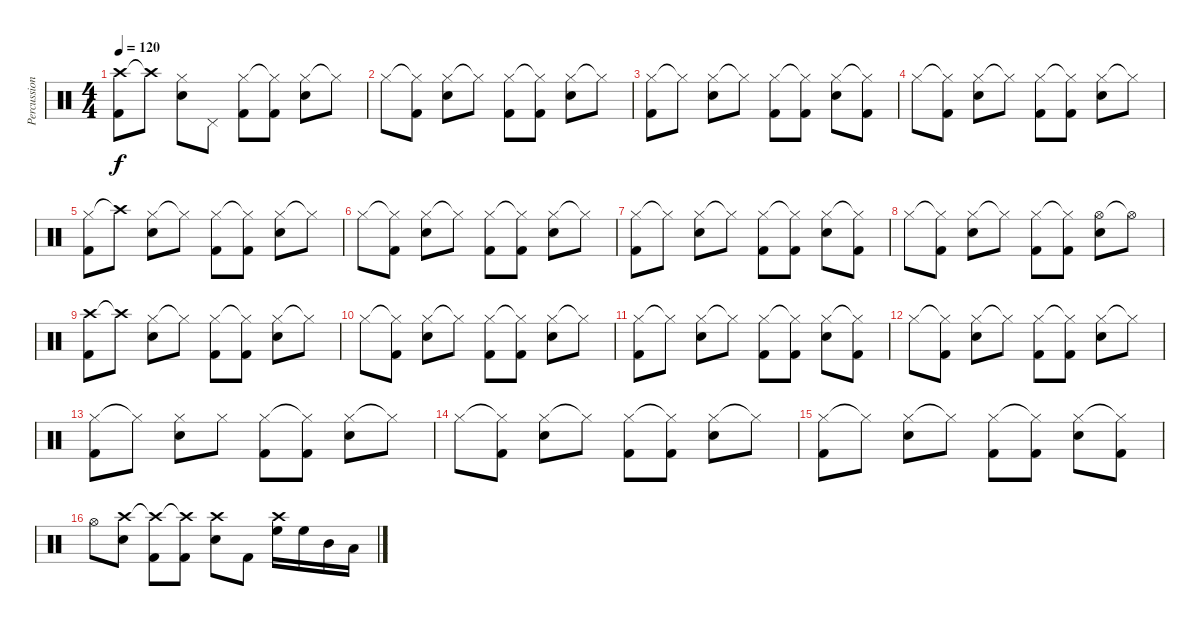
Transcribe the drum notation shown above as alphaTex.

\track ("Percussion" "Percussion") {instrument percussion}
\staff {score}
\articulation defaults
\ts (4 4)
\tempo 120
\clef neutral
\ks c
("Crash high (hit)" "Kick (hit) 2").8{dy f} "Crash high (hit)"{t}.8 ("Hi-Hat (closed)" "Electric Snare (hit)").8 "Pedal Hi-Hat (hit)".8 ("Hi-Hat (closed)" "Kick (hit) 2").8 ("Hi-Hat (closed)"{t} "Kick (hit) 2").8 ("Hi-Hat (closed)" "Electric Snare (hit)").8 "Hi-Hat (closed)"{t}.8 |
"Hi-Hat (closed)".8 ("Hi-Hat (closed)"{t} "Kick (hit) 2").8 ("Hi-Hat (closed)" "Electric Snare (hit)").8 "Hi-Hat (closed)"{t}.8 ("Hi-Hat (closed)" "Kick (hit) 2").8 ("Hi-Hat (closed)"{t} "Kick (hit) 2").8 ("Hi-Hat (closed)" "Electric Snare (hit)").8 "Hi-Hat (closed)"{t}.8 |
("Hi-Hat (closed)" "Kick (hit) 2").8 "Hi-Hat (closed)"{t}.8 ("Hi-Hat (closed)" "Electric Snare (hit)").8 "Hi-Hat (closed)"{t}.8 ("Hi-Hat (closed)" "Kick (hit) 2").8 ("Hi-Hat (closed)"{t} "Kick (hit) 2").8 ("Hi-Hat (closed)" "Electric Snare (hit)").8 ("Hi-Hat (closed)"{t} "Kick (hit) 2").8 |
"Hi-Hat (closed)".8 ("Hi-Hat (closed)"{t} "Kick (hit) 2").8 ("Hi-Hat (closed)" "Electric Snare (hit)").8 "Hi-Hat (closed)"{t}.8 ("Hi-Hat (closed)" "Kick (hit) 2").8 ("Hi-Hat (closed)"{t} "Kick (hit) 2").8 ("Hi-Hat (closed)" "Electric Snare (hit)").8 "Hi-Hat (closed)"{t}.8 |
("Hi-Hat (closed)" "Kick (hit) 2").8 "Crash high (hit)"{t}.8 ("Hi-Hat (closed)" "Electric Snare (hit)").8 "Hi-Hat (closed)"{t}.8 ("Hi-Hat (closed)" "Kick (hit) 2").8 ("Hi-Hat (closed)"{t} "Kick (hit) 2").8 ("Hi-Hat (closed)" "Electric Snare (hit)").8 "Hi-Hat (closed)"{t}.8 |
"Hi-Hat (closed)".8 ("Hi-Hat (closed)"{t} "Kick (hit) 2").8 ("Hi-Hat (closed)" "Electric Snare (hit)").8 "Hi-Hat (closed)"{t}.8 ("Hi-Hat (closed)" "Kick (hit) 2").8 ("Hi-Hat (closed)"{t} "Kick (hit) 2").8 ("Hi-Hat (closed)" "Electric Snare (hit)").8 "Hi-Hat (closed)"{t}.8 |
("Hi-Hat (closed)" "Kick (hit) 2").8 "Hi-Hat (closed)"{t}.8 ("Hi-Hat (closed)" "Electric Snare (hit)").8 "Hi-Hat (closed)"{t}.8 ("Hi-Hat (closed)" "Kick (hit) 2").8 ("Hi-Hat (closed)"{t} "Kick (hit) 2").8 ("Hi-Hat (closed)" "Electric Snare (hit)").8 ("Hi-Hat (closed)"{t} "Kick (hit) 2").8 |
"Hi-Hat (closed)".8 ("Hi-Hat (closed)"{t} "Kick (hit) 2").8 ("Hi-Hat (closed)" "Electric Snare (hit)").8 "Hi-Hat (closed)"{t}.8 ("Hi-Hat (closed)" "Kick (hit) 2").8 ("Hi-Hat (closed)"{t} "Kick (hit) 2").8 ("Hi-Hat (open)" "Electric Snare (hit)").8 "Hi-Hat (open)"{t}.8 |
("Crash high (hit)" "Kick (hit) 2").8 "Crash high (hit)"{t}.8 ("Hi-Hat (closed)" "Electric Snare (hit)").8 "Hi-Hat (closed)"{t}.8 ("Hi-Hat (closed)" "Kick (hit) 2").8 ("Hi-Hat (closed)"{t} "Kick (hit) 2").8 ("Hi-Hat (closed)" "Electric Snare (hit)").8 "Hi-Hat (closed)"{t}.8 |
"Hi-Hat (closed)".8 ("Hi-Hat (closed)"{t} "Kick (hit) 2").8 ("Hi-Hat (closed)" "Electric Snare (hit)").8 "Hi-Hat (closed)"{t}.8 ("Hi-Hat (closed)" "Kick (hit) 2").8 ("Hi-Hat (closed)"{t} "Kick (hit) 2").8 ("Hi-Hat (closed)" "Electric Snare (hit)").8 "Hi-Hat (closed)"{t}.8 |
("Hi-Hat (closed)" "Kick (hit) 2").8 "Hi-Hat (closed)"{t}.8 ("Hi-Hat (closed)" "Electric Snare (hit)").8 "Hi-Hat (closed)"{t}.8 ("Hi-Hat (closed)" "Kick (hit) 2").8 ("Hi-Hat (closed)"{t} "Kick (hit) 2").8 ("Hi-Hat (closed)" "Electric Snare (hit)").8 ("Hi-Hat (closed)"{t} "Kick (hit) 2").8 |
"Hi-Hat (closed)".8 ("Hi-Hat (closed)"{t} "Kick (hit) 2").8 ("Hi-Hat (closed)" "Electric Snare (hit)").8 "Hi-Hat (closed)"{t}.8 ("Hi-Hat (closed)" "Kick (hit) 2").8 ("Hi-Hat (closed)"{t} "Kick (hit) 2").8 ("Hi-Hat (closed)" "Electric Snare (hit)").8 "Hi-Hat (closed)"{t}.8 |
("Hi-Hat (closed)" "Kick (hit) 2").8 "Hi-Hat (closed)"{t}.8 ("Hi-Hat (closed)" "Electric Snare (hit)").8 "Hi-Hat (closed)".8 ("Hi-Hat (closed)" "Kick (hit) 2").8 ("Hi-Hat (closed)"{t} "Kick (hit) 2").8 ("Hi-Hat (closed)" "Electric Snare (hit)").8 "Hi-Hat (closed)"{t}.8 |
"Hi-Hat (closed)".8 ("Hi-Hat (closed)"{t} "Kick (hit) 2").8 ("Hi-Hat (closed)" "Electric Snare (hit)").8 "Hi-Hat (closed)"{t}.8 ("Hi-Hat (closed)" "Kick (hit) 2").8 ("Hi-Hat (closed)"{t} "Kick (hit) 2").8 ("Hi-Hat (closed)" "Electric Snare (hit)").8 "Hi-Hat (closed)"{t}.8 |
("Hi-Hat (closed)" "Kick (hit) 2").8 "Hi-Hat (closed)"{t}.8 ("Hi-Hat (closed)" "Electric Snare (hit)").8 "Hi-Hat (closed)"{t}.8 ("Hi-Hat (closed)" "Kick (hit) 2").8 ("Hi-Hat (closed)"{t} "Kick (hit) 2").8 ("Hi-Hat (closed)" "Electric Snare (hit)").8 ("Hi-Hat (closed)"{t} "Kick (hit) 2").8 |
"Hi-Hat (open)".8 ("Crash high (hit)" "Electric Snare (hit)").8 ("Crash high (hit)"{t} "Kick (hit) 2").8 ("Crash high (hit)"{t} "Kick (hit) 2").8 ("Crash high (hit)" "Electric Snare (hit)").8 "Kick (hit) 2".8 ("Crash high (hit)" "High Floor Tom (hit)").16 "High Floor Tom (hit)".16 "Mid Tom (hit)".16 "Low Floor Tom (hit)".16
